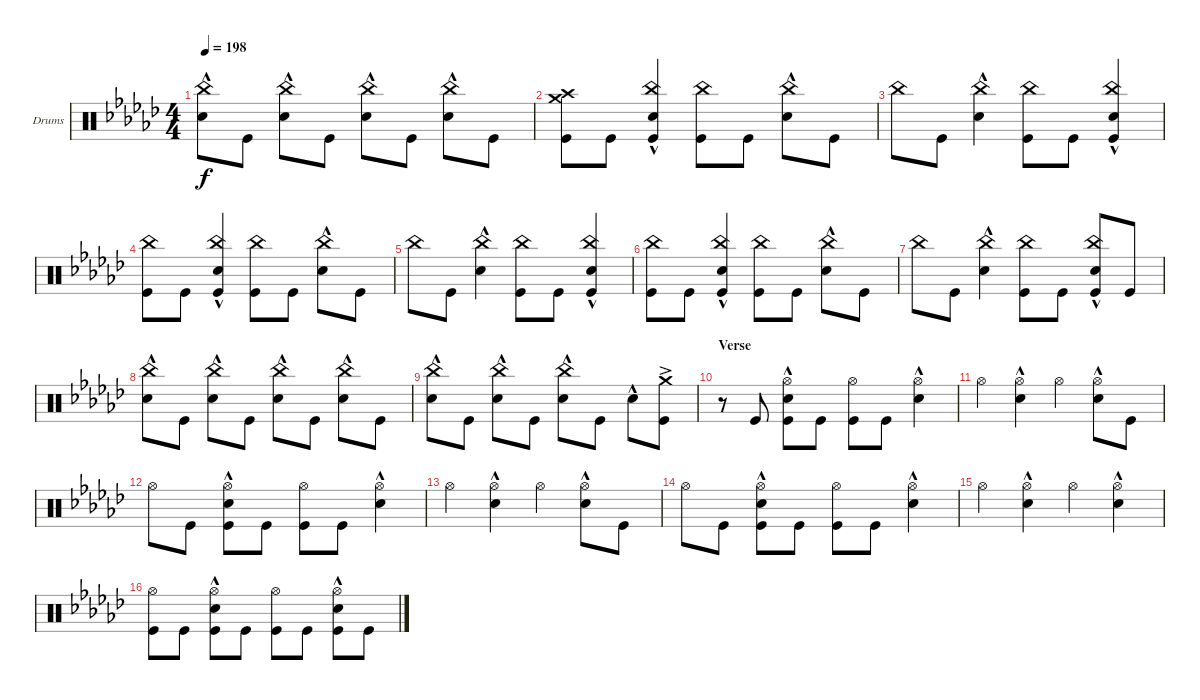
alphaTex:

\bracketExtendMode groupsimilarinstruments
\firstSystemTrackNameOrientation horizontal
\otherSystemsTrackNameOrientation horizontal
\track ("Drumkit" "Drums") {instrument percussion}
\staff {score}
\articulation defaults
\ts (4 4)
\tempo 198
\clef neutral
\ks ebminor
("Snare (hit) 2"{hac} "China (hit)").8{dy f} "Kick (hit)".8 ("Snare (hit) 2"{hac} "China (hit)").8 "Kick (hit)".8 ("Snare (hit) 2"{hac} "China (hit)").8 "Kick (hit)".8 ("Snare (hit) 2"{hac} "China (hit)").8 "Kick (hit)".8 |
("Kick (hit)" "Crash medium (hit)" "Crash high (hit)").8 "Kick (hit)".8 ("Kick (hit)" "Snare (hit) 2"{hac} "China (hit)").4 ("Kick (hit)" "China (hit)").8 "Kick (hit)".8 ("Snare (hit) 2"{hac} "China (hit)").8 "Kick (hit)".8 |
"China (hit)".8 "Kick (hit)".8 ("Snare (hit) 2"{hac} "China (hit)").4 ("Kick (hit)" "China (hit)").8 "Kick (hit)".8 ("Kick (hit)" "China (hit)" "Snare (hit) 2"{hac}).4 |
("Kick (hit)" "China (hit)").8 "Kick (hit)".8 ("Kick (hit)" "Snare (hit) 2"{hac} "China (hit)").4 ("Kick (hit)" "China (hit)").8 "Kick (hit)".8 ("Snare (hit) 2"{hac} "China (hit)").8 "Kick (hit)".8 |
"China (hit)".8 "Kick (hit)".8 ("Snare (hit) 2"{hac} "China (hit)").4 ("Kick (hit)" "China (hit)").8 "Kick (hit)".8 ("Kick (hit)" "China (hit)" "Snare (hit) 2"{hac}).4 |
("Kick (hit)" "China (hit)").8 "Kick (hit)".8 ("Kick (hit)" "Snare (hit) 2"{hac} "China (hit)").4 ("Kick (hit)" "China (hit)").8 "Kick (hit)".8 ("Snare (hit) 2"{hac} "China (hit)").8 "Kick (hit)".8 |
"China (hit)".8 "Kick (hit)".8 ("Snare (hit) 2"{hac} "China (hit)").4 ("Kick (hit)" "China (hit)").8 "Kick (hit)".8 ("China (hit)" "Snare (hit) 2"{hac} "Kick (hit)").8 "Kick (hit)".8 |
("Snare (hit) 2"{hac} "China (hit)").8 "Kick (hit)".8 ("Snare (hit) 2"{hac} "China (hit)").8 "Kick (hit)".8 ("Snare (hit) 2"{hac} "China (hit)").8 "Kick (hit)".8 ("Snare (hit) 2"{hac} "China (hit)").8 "Kick (hit)".8 |
("Snare (hit) 2"{hac} "China (hit)").8 "Kick (hit)".8 ("Snare (hit) 2"{hac} "China (hit)").8 "Kick (hit)".8 ("Snare (hit) 2"{hac} "China (hit)").8 "Kick (hit)".8 "Snare (hit) 2"{hac}.8 ("Kick (hit)" "Crash medium (hit)"{ac}).8 |
\section ("" "Verse")
r.8 "Kick (hit)".8 ("Hi-Hat (open)" "Snare (hit) 2"{hac} "Kick (hit)").8 "Kick (hit)".8 ("Hi-Hat (open)" "Kick (hit)").8 "Kick (hit)".8 ("Snare (hit) 2"{hac} "Hi-Hat (open)").4 |
"Hi-Hat (open)".4 ("Snare (hit) 2"{hac} "Hi-Hat (open)").4 "Hi-Hat (open)".4 ("Snare (hit) 2"{hac} "Hi-Hat (open)").8 "Kick (hit)".8 |
"Hi-Hat (open)".8 "Kick (hit)".8 ("Hi-Hat (open)" "Snare (hit) 2"{hac} "Kick (hit)").8 "Kick (hit)".8 ("Hi-Hat (open)" "Kick (hit)").8 "Kick (hit)".8 ("Snare (hit) 2"{hac} "Hi-Hat (open)").4 |
"Hi-Hat (open)".4 ("Snare (hit) 2"{hac} "Hi-Hat (open)").4 "Hi-Hat (open)".4 ("Snare (hit) 2"{hac} "Hi-Hat (open)").8 "Kick (hit)".8 |
"Hi-Hat (open)".8 "Kick (hit)".8 ("Hi-Hat (open)" "Snare (hit) 2"{hac} "Kick (hit)").8 "Kick (hit)".8 ("Hi-Hat (open)" "Kick (hit)").8 "Kick (hit)".8 ("Snare (hit) 2"{hac} "Hi-Hat (open)").4 |
"Hi-Hat (open)".4 ("Snare (hit) 2"{hac} "Hi-Hat (open)").4 "Hi-Hat (open)".4 ("Snare (hit) 2"{hac} "Hi-Hat (open)").4 |
("Kick (hit)" "Hi-Hat (open)").8 "Kick (hit)".8 ("Kick (hit)" "Hi-Hat (open)" "Snare (hit) 2"{hac}).8 "Kick (hit)".8 ("Kick (hit)" "Hi-Hat (open)").8 "Kick (hit)".8 ("Kick (hit)" "Hi-Hat (open)" "Snare (hit) 2"{hac}).8 "Kick (hit)".8
